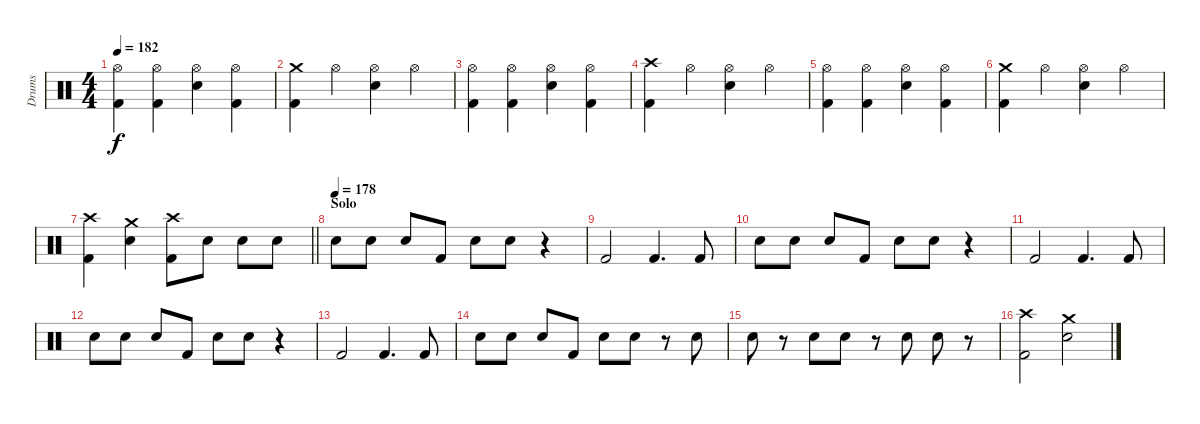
\track ("Drums" "Drums") {instrument percussion}
\staff {score}
\articulation defaults
\ts (4 4)
\tempo 182
\clef neutral
\ks c
("Hi-Hat (open)" "Kick (hit) 2").4{dy f} ("Hi-Hat (open)" "Kick (hit) 2").4 ("Hi-Hat (open)" "Snare (hit) 2").4 ("Hi-Hat (open)" "Kick (hit) 2").4 |
("Crash medium (hit)" "Kick (hit) 2").4 "Hi-Hat (open)".4 ("Hi-Hat (open)" "Snare (hit) 2").4 "Hi-Hat (open)".4 |
("Hi-Hat (open)" "Kick (hit) 2").4 ("Hi-Hat (open)" "Kick (hit) 2").4 ("Hi-Hat (open)" "Snare (hit) 2").4 ("Hi-Hat (open)" "Kick (hit) 2").4 |
("Crash high (hit)" "Kick (hit) 2").4 "Hi-Hat (open)".4 ("Hi-Hat (open)" "Snare (hit) 2").4 "Hi-Hat (open)".4 |
("Hi-Hat (open)" "Kick (hit) 2").4 ("Hi-Hat (open)" "Kick (hit) 2").4 ("Hi-Hat (open)" "Snare (hit) 2").4 ("Hi-Hat (open)" "Kick (hit) 2").4 |
("Crash medium (hit)" "Kick (hit) 2").4 "Hi-Hat (open)".4 ("Hi-Hat (open)" "Snare (hit) 2").4 "Hi-Hat (open)".4 |
\barLineRight lightlight
("Crash high (hit)" "Kick (hit) 2").4 ("Crash medium (hit)" "Snare (hit) 2").4 ("Crash high (hit)" "Kick (hit) 2").8 "Snare (hit) 2".8 "Snare (hit) 2".8 "Snare (hit) 2".8 |
\section ("" "Solo")
\tempo (178)
"Snare (hit) 2".8 "Snare (hit) 2".8 "Snare (hit) 2".8 "Kick (hit) 2".8 "Snare (hit) 2".8 "Snare (hit) 2".8 r.4 |
"Kick (hit) 2".2 "Kick (hit) 2".4{d} "Kick (hit) 2".8 |
"Snare (hit) 2".8 "Snare (hit) 2".8 "Snare (hit) 2".8 "Kick (hit) 2".8 "Snare (hit) 2".8 "Snare (hit) 2".8 r.4 |
"Kick (hit) 2".2 "Kick (hit) 2".4{d} "Kick (hit) 2".8 |
"Snare (hit) 2".8 "Snare (hit) 2".8 "Snare (hit) 2".8 "Kick (hit) 2".8 "Snare (hit) 2".8 "Snare (hit) 2".8 r.4 |
"Kick (hit) 2".2 "Kick (hit) 2".4{d} "Kick (hit) 2".8 |
"Snare (hit) 2".8 "Snare (hit) 2".8 "Snare (hit) 2".8 "Kick (hit) 2".8 "Snare (hit) 2".8 "Snare (hit) 2".8 r.8 "Snare (hit) 2".8 |
"Snare (hit) 2".8 r.8 "Snare (hit) 2".8 "Snare (hit) 2".8 r.8 "Snare (hit) 2".8 "Snare (hit) 2".8 r.8 |
("Crash high (hit)" "Kick (hit) 2").2 ("Crash medium (hit)" "Snare (hit) 2").2
